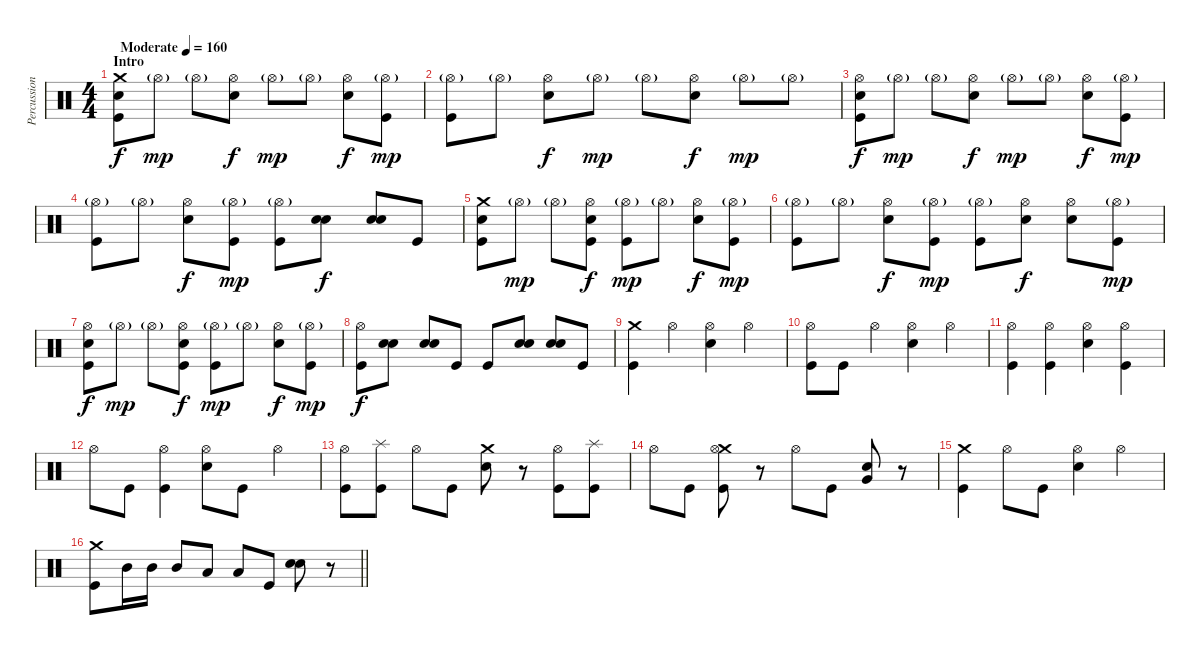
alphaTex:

\track ("Percussion" "Percussion") {instrument percussion}
\staff {score}
\articulation defaults
\ts (4 4)
\section ("" "Intro")
\tempo (160 "Moderate")
\clef neutral
\ks c
("Crash medium (hit)" "Snare (hit) 2" "Kick (hit)").8{dy f} "Hi-Hat (open)"{g}.8{dy mp} "Hi-Hat (open)"{g}.8 ("Hi-Hat (open)" "Snare (hit) 2").8{dy f} "Hi-Hat (open)"{g}.8{dy mp} "Hi-Hat (open)"{g}.8 ("Hi-Hat (open)" "Snare (hit) 2").8{dy f} ("Hi-Hat (open)"{g} "Kick (hit)").8{dy mp} |
("Hi-Hat (open)"{g} "Kick (hit)").8 "Hi-Hat (open)"{g}.8 ("Hi-Hat (open)" "Snare (hit) 2").8{dy f} "Hi-Hat (open)"{g}.8{dy mp} "Hi-Hat (open)"{g}.8 ("Hi-Hat (open)" "Snare (hit) 2").8{dy f} "Hi-Hat (open)"{g}.8{dy mp} "Hi-Hat (open)"{g}.8 |
("Hi-Hat (open)" "Snare (hit) 2" "Kick (hit)").8{dy f} "Hi-Hat (open)"{g}.8{dy mp} "Hi-Hat (open)"{g}.8 ("Hi-Hat (open)" "Snare (hit) 2").8{dy f} "Hi-Hat (open)"{g}.8{dy mp} "Hi-Hat (open)"{g}.8 ("Hi-Hat (open)" "Snare (hit) 2").8{dy f} ("Hi-Hat (open)"{g} "Kick (hit)").8{dy mp} |
("Hi-Hat (open)"{g} "Kick (hit)").8 "Hi-Hat (open)"{g}.8 ("Hi-Hat (open)" "Snare (hit) 2").8{dy f} ("Hi-Hat (open)"{g} "Kick (hit)").8{dy mp} ("Hi-Hat (open)"{g} "Kick (hit)").8 ("Snare (hit) 2" "Snare (hit) 2").8{dy f} ("Snare (hit) 2" "Snare (hit) 2").8 "Kick (hit)".8 |
("Crash medium (hit)" "Snare (hit) 2" "Kick (hit)").8 "Hi-Hat (open)"{g}.8{dy mp} "Hi-Hat (open)"{g}.8 ("Hi-Hat (open)" "Snare (hit) 2" "Kick (hit)").8{dy f} ("Hi-Hat (open)"{g} "Kick (hit)").8{dy mp} "Hi-Hat (open)"{g}.8 ("Hi-Hat (open)" "Snare (hit) 2").8{dy f} ("Hi-Hat (open)"{g} "Kick (hit)").8{dy mp} |
("Hi-Hat (open)"{g} "Kick (hit)").8 "Hi-Hat (open)"{g}.8 ("Hi-Hat (open)" "Snare (hit) 2").8{dy f} ("Hi-Hat (open)"{g} "Kick (hit)").8{dy mp} ("Hi-Hat (open)"{g} "Kick (hit)").8 ("Hi-Hat (open)" "Snare (hit) 2").8{dy f} ("Hi-Hat (open)" "Snare (hit) 2").8 ("Hi-Hat (open)"{g} "Kick (hit)").8{dy mp} |
("Hi-Hat (open)" "Snare (hit) 2" "Kick (hit)").8{dy f} "Hi-Hat (open)"{g}.8{dy mp} "Hi-Hat (open)"{g}.8 ("Hi-Hat (open)" "Snare (hit) 2" "Kick (hit)").8{dy f} ("Hi-Hat (open)"{g} "Kick (hit)").8{dy mp} "Hi-Hat (open)"{g}.8 ("Hi-Hat (open)" "Snare (hit) 2").8{dy f} ("Hi-Hat (open)"{g} "Kick (hit)").8{dy mp} |
("Hi-Hat (open)" "Kick (hit)").8{dy f} ("Snare (hit) 2" "Snare (hit) 2").8 ("Snare (hit) 2" "Snare (hit) 2").8 "Kick (hit)".8 "Kick (hit)".8 ("Snare (hit) 2" "Snare (hit) 2").8 ("Snare (hit) 2" "Snare (hit) 2").8 "Kick (hit)".8 |
("Crash medium (hit)" "Kick (hit)").4 "Hi-Hat (open)".4 ("Hi-Hat (open)" "Snare (hit) 2").4 "Hi-Hat (open)".4 |
("Hi-Hat (open)" "Kick (hit)").8 "Kick (hit)".8 "Hi-Hat (open)".4 ("Hi-Hat (open)" "Snare (hit) 2").4 "Hi-Hat (open)".4 |
("Hi-Hat (open)" "Kick (hit)").4 ("Hi-Hat (open)" "Kick (hit)").4 ("Hi-Hat (open)" "Snare (hit) 2").4 ("Hi-Hat (open)" "Kick (hit)").4 |
"Hi-Hat (open)".8 "Kick (hit)".8 ("Hi-Hat (open)" "Kick (hit)").4 ("Hi-Hat (open)" "Snare (hit) 2").8 "Kick (hit)".8 "Hi-Hat (open)".4 |
("Hi-Hat (open)" "Kick (hit)").8 ("Splash (hit)" "Kick (hit)").8 "Hi-Hat (open)".8 "Kick (hit)".8 ("Crash medium (hit)" "Snare (hit) 2").8 r.8 ("Hi-Hat (open)" "Kick (hit)").8 ("Splash (hit)" "Kick (hit)").8 |
"Hi-Hat (open)".8 "Kick (hit)".8 ("Crash medium (hit)" "Hi-Hat (open)" "Kick (hit)").8 r.8 "Hi-Hat (open)".8 "Kick (hit)".8 ("Very Low Tom (hit)" "Snare (hit) 2").8 r.8 |
("Crash medium (hit)" "Kick (hit)").4 "Hi-Hat (open)".8 "Kick (hit)".8 ("Hi-Hat (open)" "Snare (hit) 2").4 "Hi-Hat (open)".4 |
\barLineRight lightlight
("Crash medium (hit)" "Kick (hit)").8 "Mid Tom (hit)".16 "Mid Tom (hit)".16 "Mid Tom (hit)".8 "Low Tom (hit)".8 "Low Tom (hit)".8 "Kick (hit)".8 ("Snare (hit) 2" "Snare (hit) 2").8 r.8
